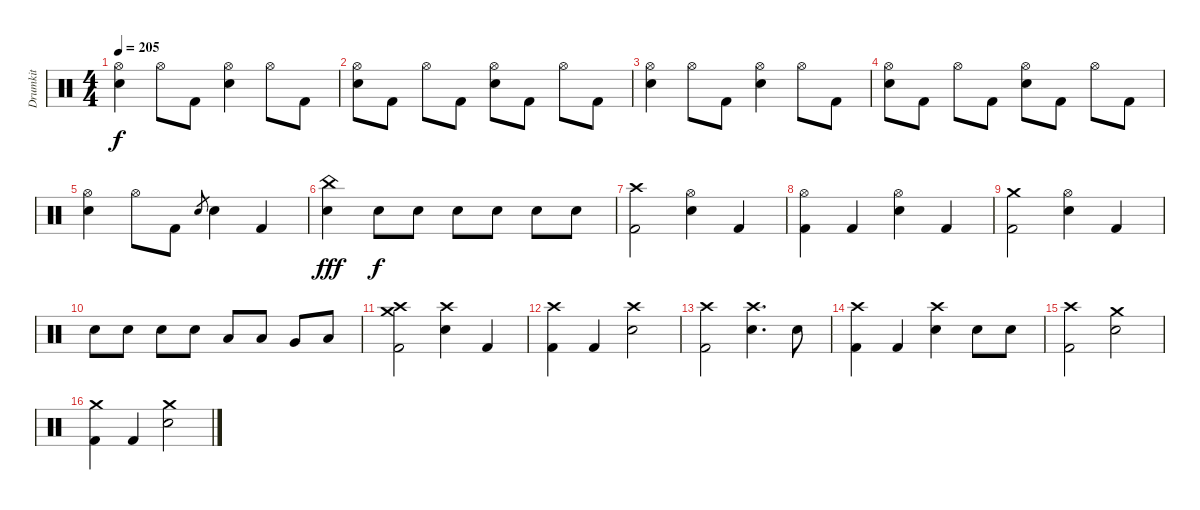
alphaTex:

\track ("Drumkit" "Drumkit") {instrument percussion}
\staff {score}
\articulation defaults
\ts (4 4)
\tempo 205
\clef neutral
\ks c
("Hi-Hat (open)" "Electric Snare (hit)").4{dy f} "Hi-Hat (open)".8 "Kick (hit) 2".8 ("Hi-Hat (open)" "Electric Snare (hit)").4 "Hi-Hat (open)".8 "Kick (hit) 2".8 |
("Hi-Hat (open)" "Electric Snare (hit)").8 "Kick (hit) 2".8 "Hi-Hat (open)".8 "Kick (hit) 2".8 ("Hi-Hat (open)" "Electric Snare (hit)").8 "Kick (hit) 2".8 "Hi-Hat (open)".8 "Kick (hit) 2".8 |
("Hi-Hat (open)" "Electric Snare (hit)").4 "Hi-Hat (open)".8 "Kick (hit) 2".8 ("Hi-Hat (open)" "Electric Snare (hit)").4 "Hi-Hat (open)".8 "Kick (hit) 2".8 |
("Hi-Hat (open)" "Electric Snare (hit)").8 "Kick (hit) 2".8 "Hi-Hat (open)".8 "Kick (hit) 2".8 ("Hi-Hat (open)" "Electric Snare (hit)").8 "Kick (hit) 2".8 "Hi-Hat (open)".8 "Kick (hit) 2".8 |
("Hi-Hat (open)" "Electric Snare (hit)").4 "Hi-Hat (open)".8 "Kick (hit) 2".8 "Electric Snare (hit)".8{gr} "Electric Snare (hit)".4 "Kick (hit) 2".4 |
("China (hit)" "Electric Snare (hit)").4{dy fff} "Electric Snare (hit)".8{dy f} "Electric Snare (hit)".8 "Electric Snare (hit)".8 "Electric Snare (hit)".8 "Electric Snare (hit)".8 "Electric Snare (hit)".8 |
("Crash high (hit)" "Kick (hit) 2").2 ("Hi-Hat (open)" "Electric Snare (hit)").4 "Kick (hit) 2".4 |
("Hi-Hat (open)" "Kick (hit) 2").4 "Kick (hit) 2".4 ("Hi-Hat (open)" "Electric Snare (hit)").4 "Kick (hit) 2".4 |
("Crash medium (hit)" "Kick (hit) 2").2 ("Hi-Hat (open)" "Electric Snare (hit)").4 "Kick (hit) 2".4 |
"Electric Snare (hit)".8 "Electric Snare (hit)".8 "Electric Snare (hit)".8 "Electric Snare (hit)".8 "Low Tom (hit)".8 "Low Tom (hit)".8 "Very Low Tom (hit)".8 "Low Floor Tom (hit)".8 |
("Crash high (hit)" "Crash medium (hit)" "Kick (hit) 2").2 ("Crash high (hit)" "Electric Snare (hit)").4 "Kick (hit) 2".4 |
("Crash high (hit)" "Kick (hit) 2").4 "Kick (hit) 2".4 ("Crash high (hit)" "Electric Snare (hit)").2 |
("Crash high (hit)" "Kick (hit) 2").2 ("Crash high (hit)" "Electric Snare (hit)").4{d} "Electric Snare (hit)".8 |
("Crash high (hit)" "Kick (hit) 2").4 "Kick (hit) 2".4 ("Crash high (hit)" "Electric Snare (hit)").4 "Electric Snare (hit)".8 "Electric Snare (hit)".8 |
("Crash high (hit)" "Kick (hit) 2").2 ("Crash medium (hit)" "Electric Snare (hit)").2 |
("Crash medium (hit)" "Kick (hit) 2").4 "Kick (hit) 2".4 ("Crash medium (hit)" "Electric Snare (hit)").2
